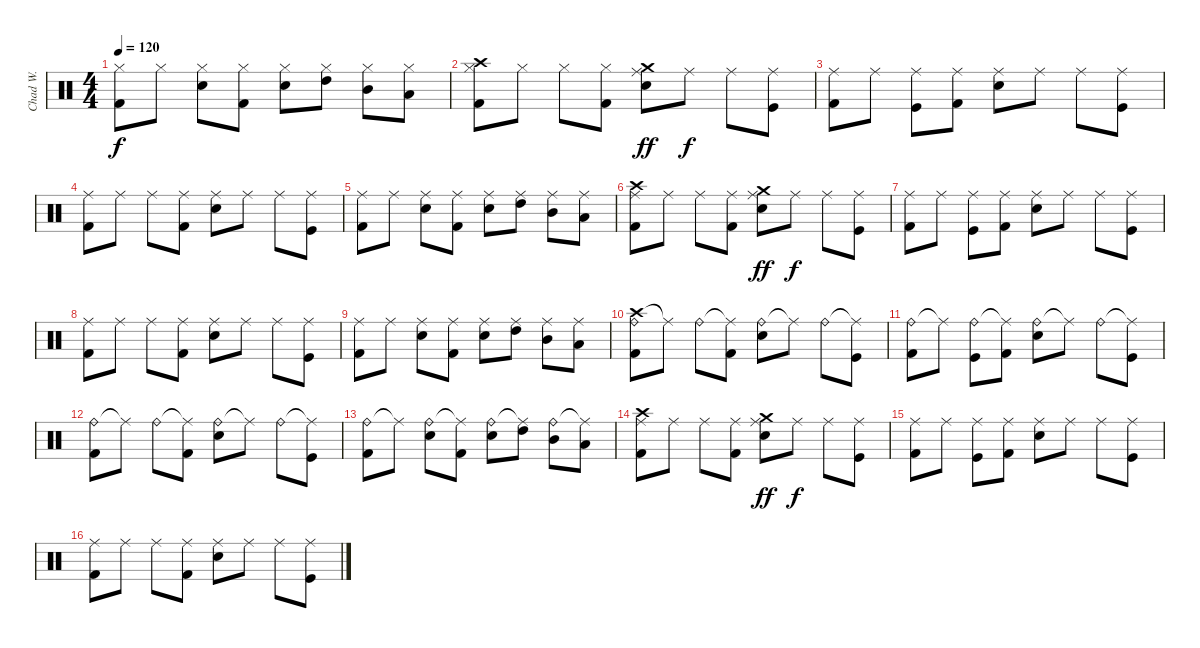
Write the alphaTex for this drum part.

\track ("Chad W." "Chad W.") {instrument percussion bank 177}
\staff {score}
\articulation defaults
\ts (4 4)
\tempo 120
\clef neutral
\ks c
("Hi-Hat (closed)" "Kick (hit) 2").8{dy f} "Hi-Hat (closed)".8 ("Hi-Hat (closed)" "Electric Snare (hit)").8 ("Hi-Hat (closed)" "Kick (hit) 2").8 ("Hi-Hat (closed)" "Electric Snare (hit)").8 ("Hi-Hat (closed)" "High Tom (hit)").8 ("Hi-Hat (closed)" "Mid Tom (hit)").8 ("Hi-Hat (closed)" "Low Tom (hit)").8 |
("Crash high (hit)" "Hi-Hat (closed)" "Kick (hit) 2").8 "Hi-Hat (closed)".8 "Hi-Hat (closed)".8 ("Hi-Hat (closed)" "Kick (hit) 2").8 ("Crash medium (hit)" "Ride (middle)" "Electric Snare (hit)").8{dy ff} "Ride (middle)".8{dy f} "Ride (middle)".8 ("Ride (middle)" "Kick (hit)").8 |
("Ride (middle)" "Kick (hit) 2").8 "Ride (middle)".8 ("Ride (middle)" "Kick (hit)").8 ("Ride (middle)" "Kick (hit) 2").8 ("Ride (middle)" "Electric Snare (hit)").8 "Ride (middle)".8 "Ride (middle)".8 ("Ride (middle)" "Kick (hit)").8 |
("Ride (middle)" "Kick (hit) 2").8 "Ride (middle)".8 "Ride (middle)".8 ("Ride (middle)" "Kick (hit) 2").8 ("Ride (middle)" "Electric Snare (hit)").8 "Ride (middle)".8 "Ride (middle)".8 ("Ride (middle)" "Kick (hit)").8 |
("Ride (middle)" "Kick (hit) 2").8 "Ride (middle)".8 ("Ride (middle)" "Electric Snare (hit)").8 ("Ride (middle)" "Kick (hit) 2").8 ("Ride (middle)" "Electric Snare (hit)").8 ("Ride (middle)" "High Tom (hit)").8 ("Ride (middle)" "Mid Tom (hit)").8 ("Ride (middle)" "Low Tom (hit)").8 |
("Crash high (hit)" "Ride (middle)" "Kick (hit) 2").8 "Ride (middle)".8 "Ride (middle)".8 ("Ride (middle)" "Kick (hit) 2").8 ("Crash medium (hit)" "Ride (middle)" "Electric Snare (hit)").8{dy ff} "Ride (middle)".8{dy f} "Ride (middle)".8 ("Ride (middle)" "Kick (hit)").8 |
("Ride (middle)" "Kick (hit) 2").8 "Ride (middle)".8 ("Ride (middle)" "Kick (hit)").8 ("Ride (middle)" "Kick (hit) 2").8 ("Ride (middle)" "Electric Snare (hit)").8 "Ride (middle)".8 "Ride (middle)".8 ("Ride (middle)" "Kick (hit)").8 |
("Ride (middle)" "Kick (hit) 2").8 "Ride (middle)".8 "Ride (middle)".8 ("Ride (middle)" "Kick (hit) 2").8 ("Ride (middle)" "Electric Snare (hit)").8 "Ride (middle)".8 "Ride (middle)".8 ("Ride (middle)" "Kick (hit)").8 |
("Ride (middle)" "Kick (hit) 2").8 "Ride (middle)".8 ("Ride (middle)" "Electric Snare (hit)").8 ("Ride (middle)" "Kick (hit) 2").8 ("Ride (middle)" "Electric Snare (hit)").8 ("Ride (middle)" "High Tom (hit)").8 ("Ride (middle)" "Mid Tom (hit)").8 ("Ride (middle)" "Low Tom (hit)").8 |
("Crash high (hit)" "Ride (bell)" "Kick (hit) 2").8 "Ride (middle)"{t}.8 "Ride (bell)".8 ("Ride (middle)"{t} "Kick (hit) 2").8 ("Ride (bell)" "Electric Snare (hit)").8 "Ride (middle)"{t}.8 "Ride (bell)".8 ("Ride (middle)"{t} "Kick (hit)").8 |
("Ride (bell)" "Kick (hit) 2").8 "Ride (middle)"{t}.8 ("Ride (bell)" "Kick (hit)").8 ("Ride (middle)"{t} "Kick (hit) 2").8 ("Ride (bell)" "Electric Snare (hit)").8 "Ride (middle)"{t}.8 "Ride (bell)".8 ("Ride (middle)"{t} "Kick (hit)").8 |
("Ride (bell)" "Kick (hit) 2").8 "Ride (middle)"{t}.8 "Ride (bell)".8 ("Ride (middle)"{t} "Kick (hit) 2").8 ("Ride (bell)" "Electric Snare (hit)").8 "Ride (middle)"{t}.8 "Ride (bell)".8 ("Ride (middle)"{t} "Kick (hit)").8 |
("Ride (bell)" "Kick (hit) 2").8 "Ride (middle)"{t}.8 ("Ride (bell)" "Electric Snare (hit)").8 ("Ride (middle)"{t} "Kick (hit) 2").8 ("Ride (bell)" "Electric Snare (hit)").8 ("Ride (middle)"{t} "High Tom (hit)").8 ("Ride (bell)" "Mid Tom (hit)").8 ("Ride (middle)"{t} "Low Tom (hit)").8 |
("Crash high (hit)" "Ride (middle)" "Kick (hit) 2").8 "Ride (middle)".8 "Ride (middle)".8 ("Ride (middle)" "Kick (hit) 2").8 ("Crash medium (hit)" "Ride (middle)" "Electric Snare (hit)").8{dy ff} "Ride (middle)".8{dy f} "Ride (middle)".8 ("Ride (middle)" "Kick (hit)").8 |
("Ride (middle)" "Kick (hit) 2").8 "Ride (middle)".8 ("Ride (middle)" "Kick (hit)").8 ("Ride (middle)" "Kick (hit) 2").8 ("Ride (middle)" "Electric Snare (hit)").8 "Ride (middle)".8 "Ride (middle)".8 ("Ride (middle)" "Kick (hit)").8 |
("Ride (middle)" "Kick (hit) 2").8 "Ride (middle)".8 "Ride (middle)".8 ("Ride (middle)" "Kick (hit) 2").8 ("Ride (middle)" "Electric Snare (hit)").8 "Ride (middle)".8 "Ride (middle)".8 ("Ride (middle)" "Kick (hit)").8
